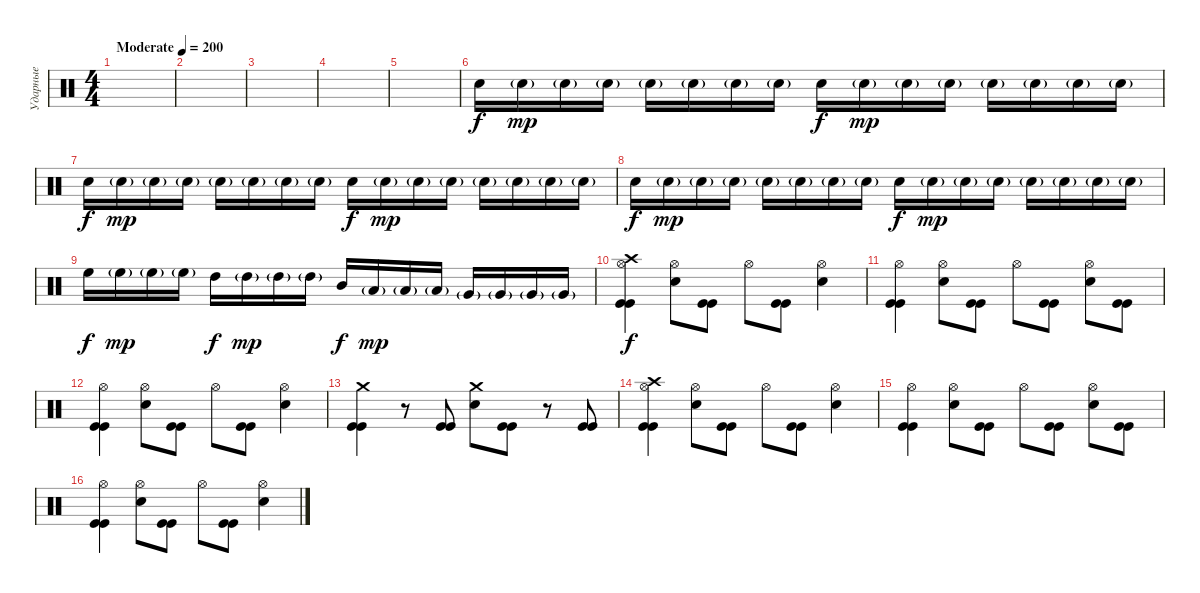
\track ("Ударные" "Ударные") {instrument percussion}
\staff {score}
\articulation defaults
\ts (4 4)
\tempo (200 "Moderate")
\clef neutral
\ks c
|
|
|
|
|
"Electric Snare (hit)".16 "Electric Snare (hit)"{g}.16{dy mp} "Electric Snare (hit)"{g}.16 "Electric Snare (hit)"{g}.16 "Electric Snare (hit)"{g}.16 "Electric Snare (hit)"{g}.16 "Electric Snare (hit)"{g}.16 "Electric Snare (hit)"{g}.16 "Electric Snare (hit)".16{dy f} "Electric Snare (hit)"{g}.16{dy mp} "Electric Snare (hit)"{g}.16 "Electric Snare (hit)"{g}.16 "Electric Snare (hit)"{g}.16 "Electric Snare (hit)"{g}.16 "Electric Snare (hit)"{g}.16 "Electric Snare (hit)"{g}.16 |
"Electric Snare (hit)".16{dy f} "Electric Snare (hit)"{g}.16{dy mp} "Electric Snare (hit)"{g}.16 "Electric Snare (hit)"{g}.16 "Electric Snare (hit)"{g}.16 "Electric Snare (hit)"{g}.16 "Electric Snare (hit)"{g}.16 "Electric Snare (hit)"{g}.16 "Electric Snare (hit)".16{dy f} "Electric Snare (hit)"{g}.16{dy mp} "Electric Snare (hit)"{g}.16 "Electric Snare (hit)"{g}.16 "Electric Snare (hit)"{g}.16 "Electric Snare (hit)"{g}.16 "Electric Snare (hit)"{g}.16 "Electric Snare (hit)"{g}.16 |
"Electric Snare (hit)".16{dy f} "Electric Snare (hit)"{g}.16{dy mp} "Electric Snare (hit)"{g}.16 "Electric Snare (hit)"{g}.16 "Electric Snare (hit)"{g}.16 "Electric Snare (hit)"{g}.16 "Electric Snare (hit)"{g}.16 "Electric Snare (hit)"{g}.16 "Electric Snare (hit)".16{dy f} "Electric Snare (hit)"{g}.16{dy mp} "Electric Snare (hit)"{g}.16 "Electric Snare (hit)"{g}.16 "Electric Snare (hit)"{g}.16 "Electric Snare (hit)"{g}.16 "Electric Snare (hit)"{g}.16 "Electric Snare (hit)"{g}.16 |
"High Floor Tom (hit)".16{dy f} "High Floor Tom (hit)"{g}.16{dy mp} "High Floor Tom (hit)"{g}.16 "High Floor Tom (hit)"{g}.16 "High Tom (hit)".16{dy f} "High Tom (hit)"{g}.16{dy mp} "High Tom (hit)"{g}.16 "High Tom (hit)"{g}.16 "Mid Tom (hit)".16{dy f} "Low Tom (hit)"{g}.16{dy mp} "Low Tom (hit)"{g}.16 "Low Tom (hit)"{g}.16 "Very Low Tom (hit)"{g}.16 "Very Low Tom (hit)"{g}.16 "Very Low Tom (hit)"{g}.16 "Very Low Tom (hit)"{g}.16 |
("Crash high (hit)" "Hi-Hat (open)" "Kick (hit)" "Kick (hit)").4{dy f} ("Hi-Hat (open)" "Electric Snare (hit)").8 ("Kick (hit)" "Kick (hit)").8 "Hi-Hat (open)".8 ("Kick (hit)" "Kick (hit)").8 ("Hi-Hat (open)" "Electric Snare (hit)").4 |
("Hi-Hat (open)" "Kick (hit)" "Kick (hit)").4 ("Hi-Hat (open)" "Electric Snare (hit)").8 ("Kick (hit)" "Kick (hit)").8 "Hi-Hat (open)".8 ("Kick (hit)" "Kick (hit)").8 ("Hi-Hat (open)" "Electric Snare (hit)").8 ("Kick (hit)" "Kick (hit)").8 |
("Hi-Hat (open)" "Kick (hit)" "Kick (hit)").4 ("Hi-Hat (open)" "Electric Snare (hit)").8 ("Kick (hit)" "Kick (hit)").8 "Hi-Hat (open)".8 ("Kick (hit)" "Kick (hit)").8 ("Hi-Hat (open)" "Electric Snare (hit)").4 |
("Crash medium (hit)" "Kick (hit)" "Kick (hit)").4 r.8 ("Kick (hit)" "Kick (hit)").8 ("Crash medium (hit)" "Electric Snare (hit)").8 ("Kick (hit)" "Kick (hit)").8 r.8 ("Kick (hit)" "Kick (hit)").8 |
("Crash high (hit)" "Hi-Hat (open)" "Kick (hit)" "Kick (hit)").4 ("Hi-Hat (open)" "Electric Snare (hit)").8 ("Kick (hit)" "Kick (hit)").8 "Hi-Hat (open)".8 ("Kick (hit)" "Kick (hit)").8 ("Hi-Hat (open)" "Electric Snare (hit)").4 |
("Hi-Hat (open)" "Kick (hit)" "Kick (hit)").4 ("Hi-Hat (open)" "Electric Snare (hit)").8 ("Kick (hit)" "Kick (hit)").8 "Hi-Hat (open)".8 ("Kick (hit)" "Kick (hit)").8 ("Hi-Hat (open)" "Electric Snare (hit)").8 ("Kick (hit)" "Kick (hit)").8 |
("Hi-Hat (open)" "Kick (hit)" "Kick (hit)").4 ("Hi-Hat (open)" "Electric Snare (hit)").8 ("Kick (hit)" "Kick (hit)").8 "Hi-Hat (open)".8 ("Kick (hit)" "Kick (hit)").8 ("Hi-Hat (open)" "Electric Snare (hit)").4
